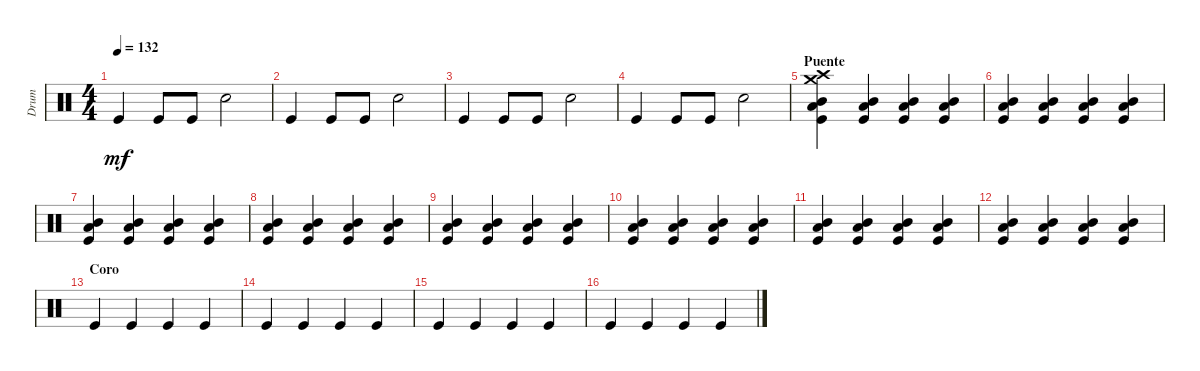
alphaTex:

\track ("Drum" "Drum") {instrument percussion}
\staff {score}
\articulation defaults
\ts (4 4)
\tempo 132
\clef neutral
\ks c "Kick (hit)".4{dy mf} "Kick (hit)".8 "Kick (hit)".8 "Snare (hit) 2".2
|
"Kick (hit)".4 "Kick (hit)".8 "Kick (hit)".8 "Snare (hit) 2".2 |
"Kick (hit)".4 "Kick (hit)".8 "Kick (hit)".8 "Snare (hit) 2".2 |
"Kick (hit)".4 "Kick (hit)".8 "Kick (hit)".8 "Snare (hit) 2".2 |
\section ("" "Puente")
("Kick (hit)" "Low Floor Tom (hit)" "Mid Tom (hit)" "Crash high (hit)" "Crash medium (hit)").4 ("Kick (hit)" "Low Floor Tom (hit)" "Mid Tom (hit)").4 ("Kick (hit)" "Low Floor Tom (hit)" "Mid Tom (hit)").4 ("Kick (hit)" "Low Floor Tom (hit)" "Mid Tom (hit)").4 |
("Kick (hit)" "Low Floor Tom (hit)" "Mid Tom (hit)").4 ("Kick (hit)" "Low Floor Tom (hit)" "Mid Tom (hit)").4 ("Kick (hit)" "Low Floor Tom (hit)" "Mid Tom (hit)").4 ("Kick (hit)" "Low Floor Tom (hit)" "Mid Tom (hit)").4 |
("Kick (hit)" "Low Floor Tom (hit)" "Mid Tom (hit)").4 ("Kick (hit)" "Low Floor Tom (hit)" "Mid Tom (hit)").4 ("Kick (hit)" "Low Floor Tom (hit)" "Mid Tom (hit)").4 ("Kick (hit)" "Low Floor Tom (hit)" "Mid Tom (hit)").4 |
("Kick (hit)" "Low Floor Tom (hit)" "Mid Tom (hit)").4 ("Kick (hit)" "Low Floor Tom (hit)" "Mid Tom (hit)").4 ("Kick (hit)" "Low Floor Tom (hit)" "Mid Tom (hit)").4 ("Kick (hit)" "Low Floor Tom (hit)" "Mid Tom (hit)").4 |
("Kick (hit)" "Low Floor Tom (hit)" "Mid Tom (hit)").4 ("Kick (hit)" "Low Floor Tom (hit)" "Mid Tom (hit)").4 ("Kick (hit)" "Low Floor Tom (hit)" "Mid Tom (hit)").4 ("Kick (hit)" "Low Floor Tom (hit)" "Mid Tom (hit)").4 |
("Kick (hit)" "Low Floor Tom (hit)" "Mid Tom (hit)").4 ("Kick (hit)" "Low Floor Tom (hit)" "Mid Tom (hit)").4 ("Kick (hit)" "Low Floor Tom (hit)" "Mid Tom (hit)").4 ("Kick (hit)" "Low Floor Tom (hit)" "Mid Tom (hit)").4 |
("Kick (hit)" "Low Floor Tom (hit)" "Mid Tom (hit)").4 ("Kick (hit)" "Low Floor Tom (hit)" "Mid Tom (hit)").4 ("Kick (hit)" "Low Floor Tom (hit)" "Mid Tom (hit)").4 ("Kick (hit)" "Low Floor Tom (hit)" "Mid Tom (hit)").4 |
("Kick (hit)" "Low Floor Tom (hit)" "Mid Tom (hit)").4 ("Kick (hit)" "Low Floor Tom (hit)" "Mid Tom (hit)").4 ("Kick (hit)" "Low Floor Tom (hit)" "Mid Tom (hit)").4 ("Kick (hit)" "Low Floor Tom (hit)" "Mid Tom (hit)").4 |
\section ("" "Coro")
"Kick (hit)".4 "Kick (hit)".4 "Kick (hit)".4 "Kick (hit)".4 |
"Kick (hit)".4 "Kick (hit)".4 "Kick (hit)".4 "Kick (hit)".4 |
"Kick (hit)".4 "Kick (hit)".4 "Kick (hit)".4 "Kick (hit)".4 |
"Kick (hit)".4 "Kick (hit)".4 "Kick (hit)".4 "Kick (hit)".4
